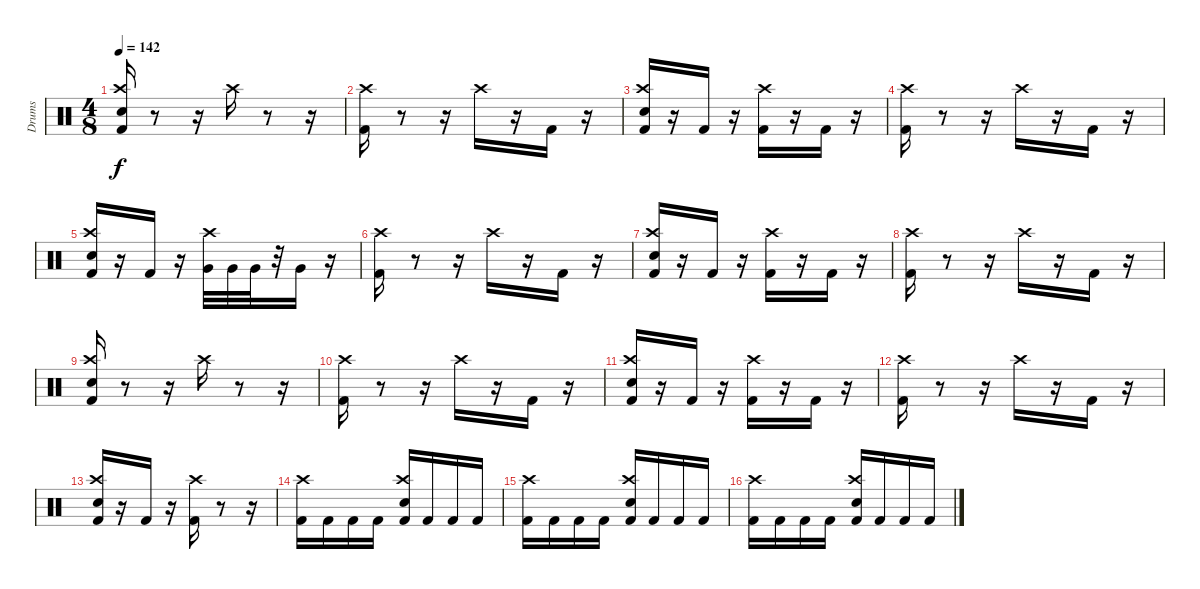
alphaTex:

\track ("Drums" "Drums") {instrument percussion}
\staff {score}
\articulation defaults
\ts (4 8)
\tempo 142
\clef neutral
\ks c
("Kick (hit) 2" "Crash high (hit)" "Electric Snare (hit)").16{dy f} r.8 r.16 "Crash high (hit)".16 r.8 r.16 |
("Kick (hit) 2" "Crash high (hit)").16 r.8 r.16 "Crash high (hit)".16 r.16 "Kick (hit) 2".16 r.16 |
("Electric Snare (hit)" "Kick (hit) 2" "Crash high (hit)").16 r.16 "Kick (hit) 2".16 r.16 ("Crash high (hit)" "Kick (hit) 2").16 r.16 "Kick (hit) 2".16 r.16 |
("Kick (hit) 2" "Crash high (hit)").16 r.8 r.16 "Crash high (hit)".16 r.16 "Kick (hit) 2".16 r.16 |
("Kick (hit) 2" "Crash high (hit)" "Electric Snare (hit)").16 r.16 "Kick (hit) 2".16 r.16 ("Crash high (hit)" "Very Low Tom (hit)").32 "Very Low Tom (hit)".32 "Very Low Tom (hit)".32 r.32 "Very Low Tom (hit)".16 r.16 |
("Kick (hit) 2" "Crash high (hit)").16 r.8 r.16 "Crash high (hit)".16 r.16 "Kick (hit) 2".16 r.16 |
("Electric Snare (hit)" "Kick (hit) 2" "Crash high (hit)").16 r.16 "Kick (hit) 2".16 r.16 ("Crash high (hit)" "Kick (hit) 2").16 r.16 "Kick (hit) 2".16 r.16 |
("Kick (hit) 2" "Crash high (hit)").16 r.8 r.16 "Crash high (hit)".16 r.16 "Kick (hit) 2".16 r.16 |
("Kick (hit) 2" "Crash high (hit)" "Electric Snare (hit)").16 r.8 r.16 "Crash high (hit)".16 r.8 r.16 |
("Kick (hit) 2" "Crash high (hit)").16 r.8 r.16 "Crash high (hit)".16 r.16 "Kick (hit) 2".16 r.16 |
("Electric Snare (hit)" "Kick (hit) 2" "Crash high (hit)").16 r.16 "Kick (hit) 2".16 r.16 ("Crash high (hit)" "Kick (hit) 2").16 r.16 "Kick (hit) 2".16 r.16 |
("Kick (hit) 2" "Crash high (hit)").16 r.8 r.16 "Crash high (hit)".16 r.16 "Kick (hit) 2".16 r.16 |
("Kick (hit) 2" "Crash high (hit)" "Electric Snare (hit)").16 r.16 "Kick (hit) 2".16 r.16 ("Crash high (hit)" "Kick (hit) 2").16 r.8 r.16 |
("Kick (hit) 2" "Crash high (hit)").16 "Kick (hit) 2".16 "Kick (hit) 2".16 "Kick (hit) 2".16 ("Kick (hit) 2" "Electric Snare (hit)" "Crash high (hit)").16 "Kick (hit) 2".16 "Kick (hit) 2".16 "Kick (hit) 2".16 |
("Kick (hit) 2" "Crash high (hit)").16 "Kick (hit) 2".16 "Kick (hit) 2".16 "Kick (hit) 2".16 ("Kick (hit) 2" "Electric Snare (hit)" "Crash high (hit)").16 "Kick (hit) 2".16 "Kick (hit) 2".16 "Kick (hit) 2".16 |
("Kick (hit) 2" "Crash high (hit)").16 "Kick (hit) 2".16 "Kick (hit) 2".16 "Kick (hit) 2".16 ("Kick (hit) 2" "Electric Snare (hit)" "Crash high (hit)").16 "Kick (hit) 2".16 "Kick (hit) 2".16 "Kick (hit) 2".16
